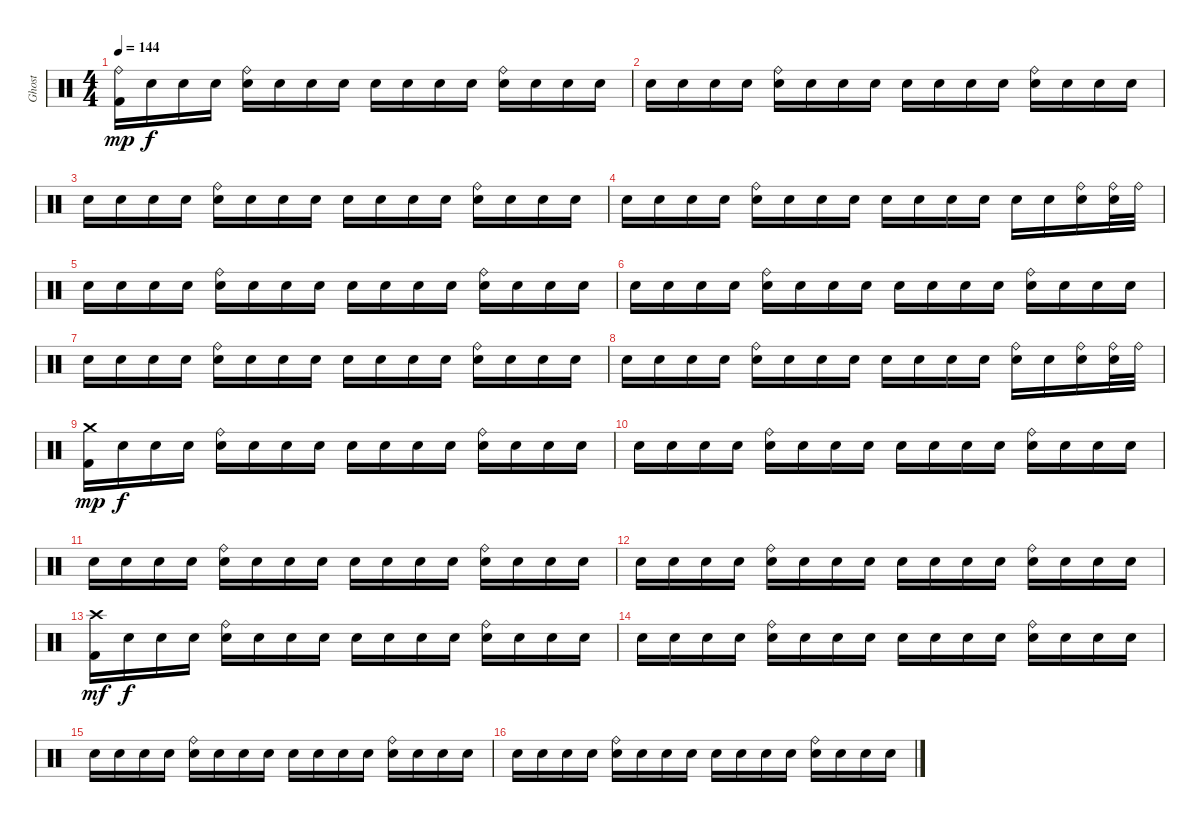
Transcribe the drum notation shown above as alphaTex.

\track ("Ghost" "Ghost") {instrument percussion}
\staff {score}
\articulation defaults
\ts (4 4)
\tempo 144
\clef neutral
\ks c
("Ride (bell)" "Kick (hit) 2").16{dy mp} "Snare (hit)".16{dy f} "Snare (hit)".16 "Snare (hit)".16 ("Ride (bell)" "Snare (hit)").16 "Snare (hit)".16 "Snare (hit)".16 "Snare (hit)".16 "Snare (hit)".16 "Snare (hit)".16 "Snare (hit)".16 "Snare (hit)".16 ("Ride (bell)" "Snare (hit)").16 "Snare (hit)".16 "Snare (hit)".16 "Snare (hit)".16 |
"Snare (hit)".16 "Snare (hit)".16 "Snare (hit)".16 "Snare (hit)".16 ("Ride (bell)" "Snare (hit)").16 "Snare (hit)".16 "Snare (hit)".16 "Snare (hit)".16 "Snare (hit)".16 "Snare (hit)".16 "Snare (hit)".16 "Snare (hit)".16 ("Ride (bell)" "Snare (hit)").16 "Snare (hit)".16 "Snare (hit)".16 "Snare (hit)".16 |
"Snare (hit)".16 "Snare (hit)".16 "Snare (hit)".16 "Snare (hit)".16 ("Ride (bell)" "Snare (hit)").16 "Snare (hit)".16 "Snare (hit)".16 "Snare (hit)".16 "Snare (hit)".16 "Snare (hit)".16 "Snare (hit)".16 "Snare (hit)".16 ("Ride (bell)" "Snare (hit)").16 "Snare (hit)".16 "Snare (hit)".16 "Snare (hit)".16 |
"Snare (hit)".16 "Snare (hit)".16 "Snare (hit)".16 "Snare (hit)".16 ("Ride (bell)" "Snare (hit)").16 "Snare (hit)".16 "Snare (hit)".16 "Snare (hit)".16 "Snare (hit)".16 "Snare (hit)".16 "Snare (hit)".16 "Snare (hit)".16 "Snare (hit)".16 "Snare (hit)".16 ("Ride (bell)" "Snare (hit)").16 ("Ride (bell)" "Snare (hit)").32 "Ride (bell)".32 |
"Snare (hit)".16 "Snare (hit)".16 "Snare (hit)".16 "Snare (hit)".16 ("Ride (bell)" "Snare (hit)").16 "Snare (hit)".16 "Snare (hit)".16 "Snare (hit)".16 "Snare (hit)".16 "Snare (hit)".16 "Snare (hit)".16 "Snare (hit)".16 ("Ride (bell)" "Snare (hit)").16 "Snare (hit)".16 "Snare (hit)".16 "Snare (hit)".16 |
"Snare (hit)".16 "Snare (hit)".16 "Snare (hit)".16 "Snare (hit)".16 ("Ride (bell)" "Snare (hit)").16 "Snare (hit)".16 "Snare (hit)".16 "Snare (hit)".16 "Snare (hit)".16 "Snare (hit)".16 "Snare (hit)".16 "Snare (hit)".16 ("Ride (bell)" "Snare (hit)").16 "Snare (hit)".16 "Snare (hit)".16 "Snare (hit)".16 |
"Snare (hit)".16 "Snare (hit)".16 "Snare (hit)".16 "Snare (hit)".16 ("Ride (bell)" "Snare (hit)").16 "Snare (hit)".16 "Snare (hit)".16 "Snare (hit)".16 "Snare (hit)".16 "Snare (hit)".16 "Snare (hit)".16 "Snare (hit)".16 ("Ride (bell)" "Snare (hit)").16 "Snare (hit)".16 "Snare (hit)".16 "Snare (hit)".16 |
"Snare (hit)".16 "Snare (hit)".16 "Snare (hit)".16 "Snare (hit)".16 ("Ride (bell)" "Snare (hit)").16 "Snare (hit)".16 "Snare (hit)".16 "Snare (hit)".16 "Snare (hit)".16 "Snare (hit)".16 "Snare (hit)".16 "Snare (hit)".16 ("Ride (bell)" "Snare (hit)").16 "Snare (hit)".16 ("Ride (bell)" "Snare (hit)").16 ("Ride (bell)" "Snare (hit)").32 "Ride (bell)".32 |
("Crash medium (hit)" "Kick (hit) 2").16{dy mp} "Snare (hit)".16{dy f} "Snare (hit)".16 "Snare (hit)".16 ("Ride (bell)" "Snare (hit)").16 "Snare (hit)".16 "Snare (hit)".16 "Snare (hit)".16 "Snare (hit)".16 "Snare (hit)".16 "Snare (hit)".16 "Snare (hit)".16 ("Ride (bell)" "Snare (hit)").16 "Snare (hit)".16 "Snare (hit)".16 "Snare (hit)".16 |
"Snare (hit)".16 "Snare (hit)".16 "Snare (hit)".16 "Snare (hit)".16 ("Ride (bell)" "Snare (hit)").16 "Snare (hit)".16 "Snare (hit)".16 "Snare (hit)".16 "Snare (hit)".16 "Snare (hit)".16 "Snare (hit)".16 "Snare (hit)".16 ("Ride (bell)" "Snare (hit)").16 "Snare (hit)".16 "Snare (hit)".16 "Snare (hit)".16 |
"Snare (hit)".16 "Snare (hit)".16 "Snare (hit)".16 "Snare (hit)".16 ("Ride (bell)" "Snare (hit)").16 "Snare (hit)".16 "Snare (hit)".16 "Snare (hit)".16 "Snare (hit)".16 "Snare (hit)".16 "Snare (hit)".16 "Snare (hit)".16 ("Ride (bell)" "Snare (hit)").16 "Snare (hit)".16 "Snare (hit)".16 "Snare (hit)".16 |
"Snare (hit)".16 "Snare (hit)".16 "Snare (hit)".16 "Snare (hit)".16 ("Ride (bell)" "Snare (hit)").16 "Snare (hit)".16 "Snare (hit)".16 "Snare (hit)".16 "Snare (hit)".16 "Snare (hit)".16 "Snare (hit)".16 "Snare (hit)".16 ("Ride (bell)" "Snare (hit)").16 "Snare (hit)".16 "Snare (hit)".16 "Snare (hit)".16 |
("Crash high (hit)" "Kick (hit) 2").16{dy mf} "Snare (hit)".16{dy f} "Snare (hit)".16 "Snare (hit)".16 ("Ride (bell)" "Snare (hit)").16 "Snare (hit)".16 "Snare (hit)".16 "Snare (hit)".16 "Snare (hit)".16 "Snare (hit)".16 "Snare (hit)".16 "Snare (hit)".16 ("Ride (bell)" "Snare (hit)").16 "Snare (hit)".16 "Snare (hit)".16 "Snare (hit)".16 |
"Snare (hit)".16 "Snare (hit)".16 "Snare (hit)".16 "Snare (hit)".16 ("Ride (bell)" "Snare (hit)").16 "Snare (hit)".16 "Snare (hit)".16 "Snare (hit)".16 "Snare (hit)".16 "Snare (hit)".16 "Snare (hit)".16 "Snare (hit)".16 ("Ride (bell)" "Snare (hit)").16 "Snare (hit)".16 "Snare (hit)".16 "Snare (hit)".16 |
"Snare (hit)".16 "Snare (hit)".16 "Snare (hit)".16 "Snare (hit)".16 ("Ride (bell)" "Snare (hit)").16 "Snare (hit)".16 "Snare (hit)".16 "Snare (hit)".16 "Snare (hit)".16 "Snare (hit)".16 "Snare (hit)".16 "Snare (hit)".16 ("Ride (bell)" "Snare (hit)").16 "Snare (hit)".16 "Snare (hit)".16 "Snare (hit)".16 |
"Snare (hit)".16 "Snare (hit)".16 "Snare (hit)".16 "Snare (hit)".16 ("Ride (bell)" "Snare (hit)").16 "Snare (hit)".16 "Snare (hit)".16 "Snare (hit)".16 "Snare (hit)".16 "Snare (hit)".16 "Snare (hit)".16 "Snare (hit)".16 ("Ride (bell)" "Snare (hit)").16 "Snare (hit)".16 "Snare (hit)".16 "Snare (hit)".16
